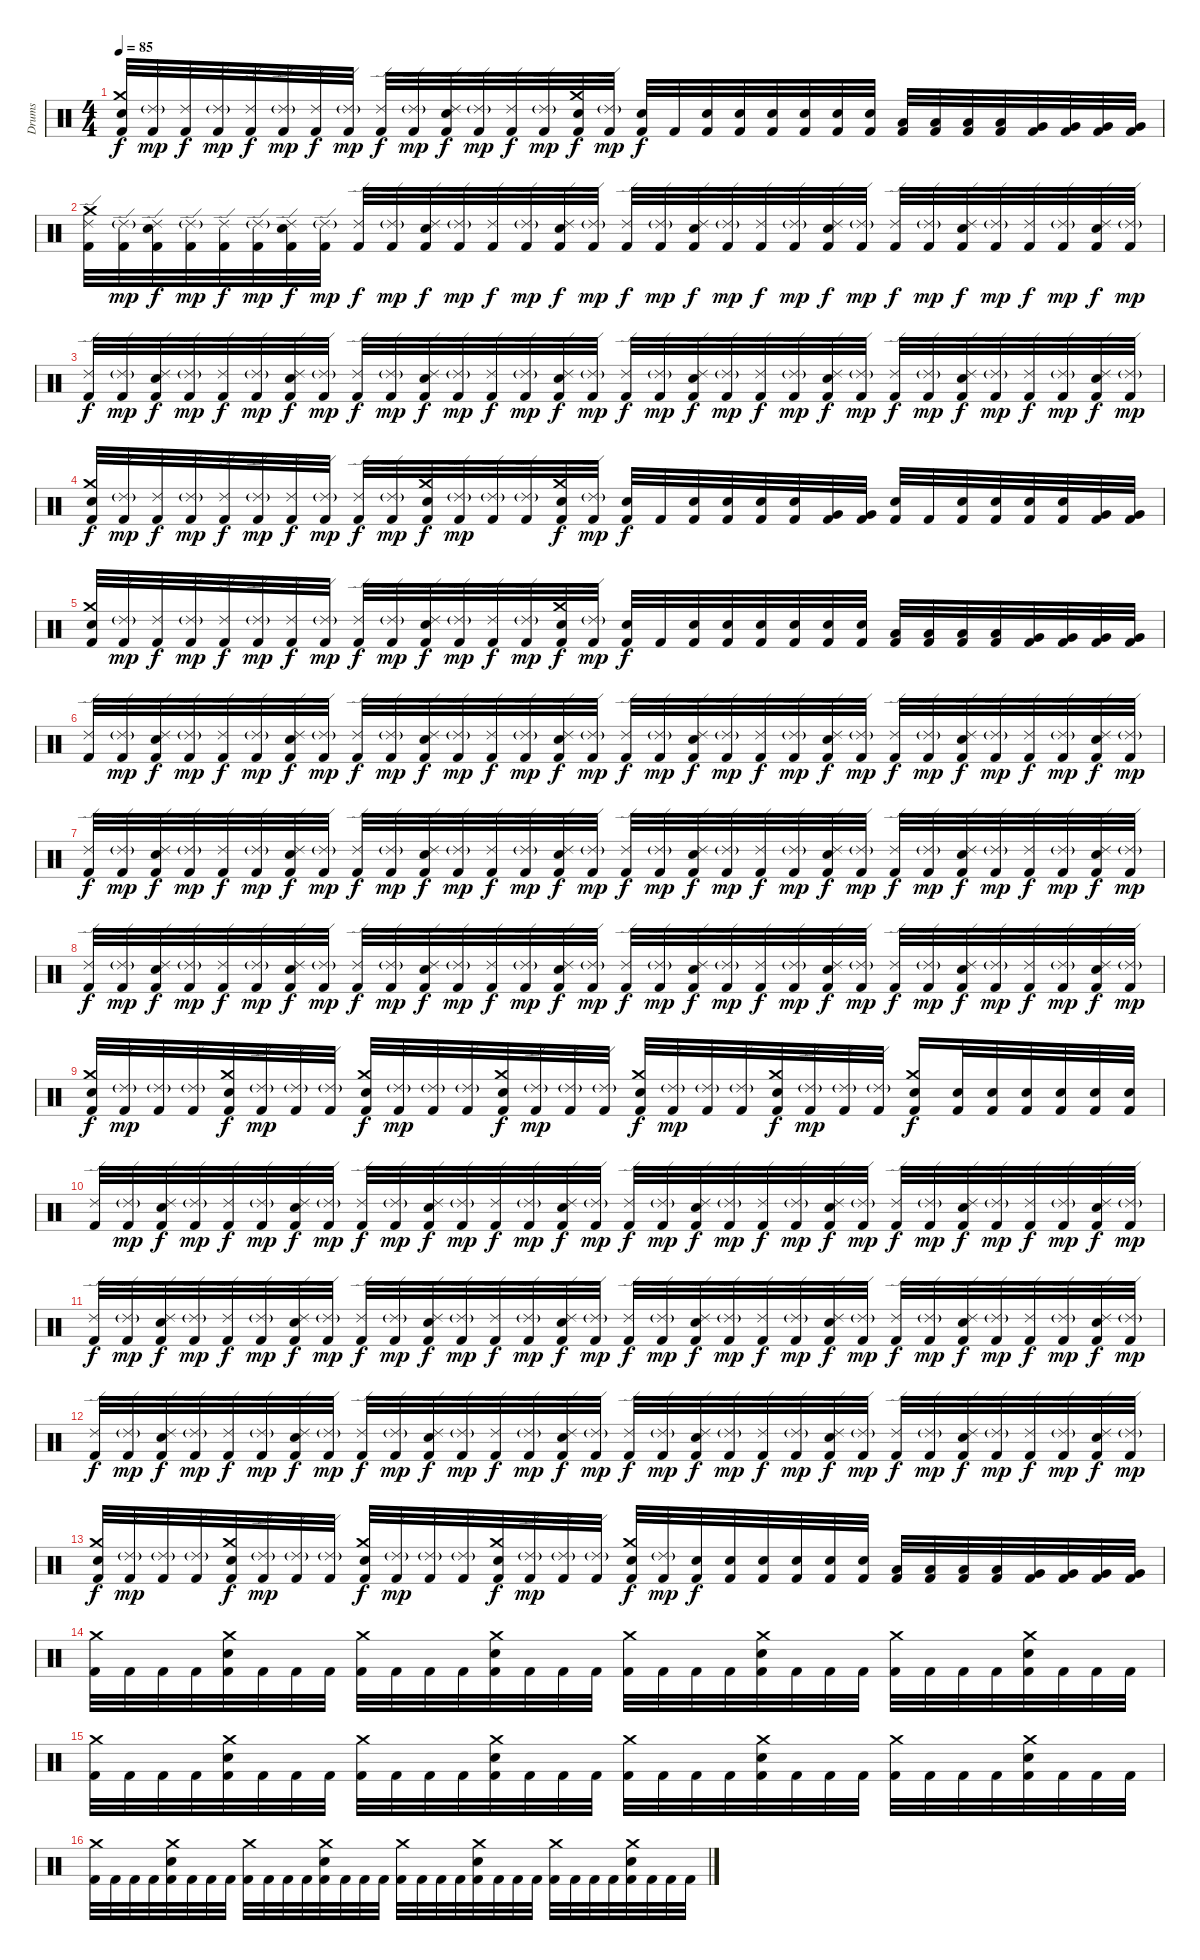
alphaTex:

\track ("Drums" "Drums") {instrument percussion}
\staff {score}
\articulation defaults
\ts (4 4)
\tempo 85
\clef neutral
\ks c
("Snare (hit) 2" "Crash medium (hit)" "Kick (hit) 2").32{dy f} ("Ride (edge) 2"{g} "Kick (hit) 2").32{dy mp} ("Ride (edge) 2" "Kick (hit) 2").32{dy f} ("Ride (edge) 2"{g} "Kick (hit) 2").32{dy mp} ("Ride (edge) 2" "Kick (hit) 2").32{dy f} ("Ride (edge) 2"{g} "Kick (hit) 2").32{dy mp} ("Ride (edge) 2" "Kick (hit) 2").32{dy f} ("Ride (edge) 2"{g} "Kick (hit) 2").32{dy mp} ("Ride (edge) 2" "Kick (hit) 2").32{dy f} ("Ride (edge) 2"{g} "Kick (hit) 2").32{dy mp} ("Snare (hit) 2" "Ride (edge) 2" "Kick (hit) 2").32{dy f} ("Ride (edge) 2"{g} "Kick (hit) 2").32{dy mp} ("Ride (edge) 2" "Kick (hit) 2").32{dy f} ("Ride (edge) 2"{g} "Kick (hit) 2").32{dy mp} ("Snare (hit) 2" "Crash medium (hit)" "Kick (hit) 2").32{dy f} ("Ride (edge) 2"{g} "Kick (hit) 2").32{dy mp} ("Snare (hit) 2" "Kick (hit) 2").32{dy f} "Kick (hit) 2".32 ("Snare (hit) 2" "Kick (hit) 2").32 ("Snare (hit) 2" "Kick (hit) 2").32 ("Snare (hit) 2" "Kick (hit) 2").32 ("Snare (hit) 2" "Kick (hit) 2").32 ("Snare (hit) 2" "Kick (hit) 2").32 ("Snare (hit) 2" "Kick (hit) 2").32 ("Low Tom (hit)" "Kick (hit) 2").32 ("Low Tom (hit)" "Kick (hit) 2").32 ("Low Tom (hit)" "Kick (hit) 2").32 ("Low Tom (hit)" "Kick (hit) 2").32 ("Very Low Tom (hit)" "Kick (hit) 2").32 ("Very Low Tom (hit)" "Kick (hit) 2").32 ("Very Low Tom (hit)" "Kick (hit) 2").32 ("Very Low Tom (hit)" "Kick (hit) 2").32 |
("Crash medium (hit)" "Ride (edge) 2" "Kick (hit) 2").32 ("Ride (edge) 2"{g} "Kick (hit) 2").32{dy mp} ("Snare (hit) 2" "Ride (edge) 2" "Kick (hit) 2").32{dy f} ("Ride (edge) 2"{g} "Kick (hit) 2").32{dy mp} ("Ride (edge) 2" "Kick (hit) 2").32{dy f} ("Ride (edge) 2"{g} "Kick (hit) 2").32{dy mp} ("Snare (hit) 2" "Ride (edge) 2" "Kick (hit) 2").32{dy f} ("Ride (edge) 2"{g} "Kick (hit) 2").32{dy mp} ("Ride (edge) 2" "Kick (hit) 2").32{dy f} ("Ride (edge) 2"{g} "Kick (hit) 2").32{dy mp} ("Snare (hit) 2" "Ride (edge) 2" "Kick (hit) 2").32{dy f} ("Ride (edge) 2"{g} "Kick (hit) 2").32{dy mp} ("Ride (edge) 2" "Kick (hit) 2").32{dy f} ("Ride (edge) 2"{g} "Kick (hit) 2").32{dy mp} ("Snare (hit) 2" "Ride (edge) 2" "Kick (hit) 2").32{dy f} ("Ride (edge) 2"{g} "Kick (hit) 2").32{dy mp} ("Ride (edge) 2" "Kick (hit) 2").32{dy f} ("Ride (edge) 2"{g} "Kick (hit) 2").32{dy mp} ("Snare (hit) 2" "Ride (edge) 2" "Kick (hit) 2").32{dy f} ("Ride (edge) 2"{g} "Kick (hit) 2").32{dy mp} ("Ride (edge) 2" "Kick (hit) 2").32{dy f} ("Ride (edge) 2"{g} "Kick (hit) 2").32{dy mp} ("Snare (hit) 2" "Ride (edge) 2" "Kick (hit) 2").32{dy f} ("Ride (edge) 2"{g} "Kick (hit) 2").32{dy mp} ("Ride (edge) 2" "Kick (hit) 2").32{dy f} ("Ride (edge) 2"{g} "Kick (hit) 2").32{dy mp} ("Snare (hit) 2" "Ride (edge) 2" "Kick (hit) 2").32{dy f} ("Ride (edge) 2"{g} "Kick (hit) 2").32{dy mp} ("Ride (edge) 2" "Kick (hit) 2").32{dy f} ("Ride (edge) 2"{g} "Kick (hit) 2").32{dy mp} ("Snare (hit) 2" "Ride (edge) 2" "Kick (hit) 2").32{dy f} ("Ride (edge) 2"{g} "Kick (hit) 2").32{dy mp} |
("Ride (edge) 2" "Kick (hit) 2").32{dy f} ("Ride (edge) 2"{g} "Kick (hit) 2").32{dy mp} ("Snare (hit) 2" "Ride (edge) 2" "Kick (hit) 2").32{dy f} ("Ride (edge) 2"{g} "Kick (hit) 2").32{dy mp} ("Ride (edge) 2" "Kick (hit) 2").32{dy f} ("Ride (edge) 2"{g} "Kick (hit) 2").32{dy mp} ("Snare (hit) 2" "Ride (edge) 2" "Kick (hit) 2").32{dy f} ("Ride (edge) 2"{g} "Kick (hit) 2").32{dy mp} ("Ride (edge) 2" "Kick (hit) 2").32{dy f} ("Ride (edge) 2"{g} "Kick (hit) 2").32{dy mp} ("Snare (hit) 2" "Ride (edge) 2" "Kick (hit) 2").32{dy f} ("Ride (edge) 2"{g} "Kick (hit) 2").32{dy mp} ("Ride (edge) 2" "Kick (hit) 2").32{dy f} ("Ride (edge) 2"{g} "Kick (hit) 2").32{dy mp} ("Snare (hit) 2" "Ride (edge) 2" "Kick (hit) 2").32{dy f} ("Ride (edge) 2"{g} "Kick (hit) 2").32{dy mp} ("Ride (edge) 2" "Kick (hit) 2").32{dy f} ("Ride (edge) 2"{g} "Kick (hit) 2").32{dy mp} ("Snare (hit) 2" "Ride (edge) 2" "Kick (hit) 2").32{dy f} ("Ride (edge) 2"{g} "Kick (hit) 2").32{dy mp} ("Ride (edge) 2" "Kick (hit) 2").32{dy f} ("Ride (edge) 2"{g} "Kick (hit) 2").32{dy mp} ("Snare (hit) 2" "Ride (edge) 2" "Kick (hit) 2").32{dy f} ("Ride (edge) 2"{g} "Kick (hit) 2").32{dy mp} ("Ride (edge) 2" "Kick (hit) 2").32{dy f} ("Ride (edge) 2"{g} "Kick (hit) 2").32{dy mp} ("Snare (hit) 2" "Ride (edge) 2" "Kick (hit) 2").32{dy f} ("Ride (edge) 2"{g} "Kick (hit) 2").32{dy mp} ("Ride (edge) 2" "Kick (hit) 2").32{dy f} ("Ride (edge) 2"{g} "Kick (hit) 2").32{dy mp} ("Snare (hit) 2" "Ride (edge) 2" "Kick (hit) 2").32{dy f} ("Ride (edge) 2"{g} "Kick (hit) 2").32{dy mp} |
("Snare (hit) 2" "Crash medium (hit)" "Kick (hit) 2").32{dy f} ("Ride (edge) 2"{g} "Kick (hit) 2").32{dy mp} ("Ride (edge) 2" "Kick (hit) 2").32{dy f} ("Ride (edge) 2"{g} "Kick (hit) 2").32{dy mp} ("Ride (edge) 2" "Kick (hit) 2").32{dy f} ("Ride (edge) 2"{g} "Kick (hit) 2").32{dy mp} ("Ride (edge) 2" "Kick (hit) 2").32{dy f} ("Ride (edge) 2"{g} "Kick (hit) 2").32{dy mp} ("Ride (edge) 2" "Kick (hit) 2").32{dy f} ("Ride (edge) 2"{g} "Kick (hit) 2").32{dy mp} ("Snare (hit) 2" "Crash medium (hit)" "Kick (hit) 2").32{dy f} ("Ride (edge) 2"{g} "Kick (hit) 2").32{dy mp} ("Ride (edge) 2"{g} "Kick (hit) 2").32 ("Ride (edge) 2"{g} "Kick (hit) 2").32 ("Snare (hit) 2" "Crash medium (hit)" "Kick (hit) 2").32{dy f} ("Ride (edge) 2"{g} "Kick (hit) 2").32{dy mp} ("Snare (hit) 2" "Kick (hit) 2").32{dy f} "Kick (hit) 2".32 ("Snare (hit) 2" "Kick (hit) 2").32 ("Snare (hit) 2" "Kick (hit) 2").32 ("Snare (hit) 2" "Kick (hit) 2").32 ("Snare (hit) 2" "Kick (hit) 2").32 ("Very Low Tom (hit)" "Kick (hit) 2").32 ("Very Low Tom (hit)" "Kick (hit) 2").32 ("Snare (hit) 2" "Kick (hit) 2").32 "Kick (hit) 2".32 ("Snare (hit) 2" "Kick (hit) 2").32 ("Snare (hit) 2" "Kick (hit) 2").32 ("Snare (hit) 2" "Kick (hit) 2").32 ("Snare (hit) 2" "Kick (hit) 2").32 ("Very Low Tom (hit)" "Kick (hit) 2").32 ("Very Low Tom (hit)" "Kick (hit) 2").32 |
("Snare (hit) 2" "Crash medium (hit)" "Kick (hit) 2").32 ("Ride (edge) 2"{g} "Kick (hit) 2").32{dy mp} ("Ride (edge) 2" "Kick (hit) 2").32{dy f} ("Ride (edge) 2"{g} "Kick (hit) 2").32{dy mp} ("Ride (edge) 2" "Kick (hit) 2").32{dy f} ("Ride (edge) 2"{g} "Kick (hit) 2").32{dy mp} ("Ride (edge) 2" "Kick (hit) 2").32{dy f} ("Ride (edge) 2"{g} "Kick (hit) 2").32{dy mp} ("Ride (edge) 2" "Kick (hit) 2").32{dy f} ("Ride (edge) 2"{g} "Kick (hit) 2").32{dy mp} ("Snare (hit) 2" "Ride (edge) 2" "Kick (hit) 2").32{dy f} ("Ride (edge) 2"{g} "Kick (hit) 2").32{dy mp} ("Ride (edge) 2" "Kick (hit) 2").32{dy f} ("Ride (edge) 2"{g} "Kick (hit) 2").32{dy mp} ("Snare (hit) 2" "Crash medium (hit)" "Kick (hit) 2").32{dy f} ("Ride (edge) 2"{g} "Kick (hit) 2").32{dy mp} ("Snare (hit) 2" "Kick (hit) 2").32{dy f} "Kick (hit) 2".32 ("Snare (hit) 2" "Kick (hit) 2").32 ("Snare (hit) 2" "Kick (hit) 2").32 ("Snare (hit) 2" "Kick (hit) 2").32 ("Snare (hit) 2" "Kick (hit) 2").32 ("Snare (hit) 2" "Kick (hit) 2").32 ("Snare (hit) 2" "Kick (hit) 2").32 ("Low Tom (hit)" "Kick (hit) 2").32 ("Low Tom (hit)" "Kick (hit) 2").32 ("Low Tom (hit)" "Kick (hit) 2").32 ("Low Tom (hit)" "Kick (hit) 2").32 ("Very Low Tom (hit)" "Kick (hit) 2").32 ("Very Low Tom (hit)" "Kick (hit) 2").32 ("Very Low Tom (hit)" "Kick (hit) 2").32 ("Very Low Tom (hit)" "Kick (hit) 2").32 |
("Ride (edge) 2" "Kick (hit) 2").32 ("Ride (edge) 2"{g} "Kick (hit) 2").32{dy mp} ("Snare (hit) 2" "Ride (edge) 2" "Kick (hit) 2").32{dy f} ("Ride (edge) 2"{g} "Kick (hit) 2").32{dy mp} ("Ride (edge) 2" "Kick (hit) 2").32{dy f} ("Ride (edge) 2"{g} "Kick (hit) 2").32{dy mp} ("Snare (hit) 2" "Ride (edge) 2" "Kick (hit) 2").32{dy f} ("Ride (edge) 2"{g} "Kick (hit) 2").32{dy mp} ("Ride (edge) 2" "Kick (hit) 2").32{dy f} ("Ride (edge) 2"{g} "Kick (hit) 2").32{dy mp} ("Snare (hit) 2" "Ride (edge) 2" "Kick (hit) 2").32{dy f} ("Ride (edge) 2"{g} "Kick (hit) 2").32{dy mp} ("Ride (edge) 2" "Kick (hit) 2").32{dy f} ("Ride (edge) 2"{g} "Kick (hit) 2").32{dy mp} ("Snare (hit) 2" "Ride (edge) 2" "Kick (hit) 2").32{dy f} ("Ride (edge) 2"{g} "Kick (hit) 2").32{dy mp} ("Ride (edge) 2" "Kick (hit) 2").32{dy f} ("Ride (edge) 2"{g} "Kick (hit) 2").32{dy mp} ("Snare (hit) 2" "Ride (edge) 2" "Kick (hit) 2").32{dy f} ("Ride (edge) 2"{g} "Kick (hit) 2").32{dy mp} ("Ride (edge) 2" "Kick (hit) 2").32{dy f} ("Ride (edge) 2"{g} "Kick (hit) 2").32{dy mp} ("Snare (hit) 2" "Ride (edge) 2" "Kick (hit) 2").32{dy f} ("Ride (edge) 2"{g} "Kick (hit) 2").32{dy mp} ("Ride (edge) 2" "Kick (hit) 2").32{dy f} ("Ride (edge) 2"{g} "Kick (hit) 2").32{dy mp} ("Snare (hit) 2" "Ride (edge) 2" "Kick (hit) 2").32{dy f} ("Ride (edge) 2"{g} "Kick (hit) 2").32{dy mp} ("Ride (edge) 2" "Kick (hit) 2").32{dy f} ("Ride (edge) 2"{g} "Kick (hit) 2").32{dy mp} ("Snare (hit) 2" "Ride (edge) 2" "Kick (hit) 2").32{dy f} ("Ride (edge) 2"{g} "Kick (hit) 2").32{dy mp} |
("Ride (edge) 2" "Kick (hit) 2").32{dy f} ("Ride (edge) 2"{g} "Kick (hit) 2").32{dy mp} ("Snare (hit) 2" "Ride (edge) 2" "Kick (hit) 2").32{dy f} ("Ride (edge) 2"{g} "Kick (hit) 2").32{dy mp} ("Ride (edge) 2" "Kick (hit) 2").32{dy f} ("Ride (edge) 2"{g} "Kick (hit) 2").32{dy mp} ("Snare (hit) 2" "Ride (edge) 2" "Kick (hit) 2").32{dy f} ("Ride (edge) 2"{g} "Kick (hit) 2").32{dy mp} ("Ride (edge) 2" "Kick (hit) 2").32{dy f} ("Ride (edge) 2"{g} "Kick (hit) 2").32{dy mp} ("Snare (hit) 2" "Ride (edge) 2" "Kick (hit) 2").32{dy f} ("Ride (edge) 2"{g} "Kick (hit) 2").32{dy mp} ("Ride (edge) 2" "Kick (hit) 2").32{dy f} ("Ride (edge) 2"{g} "Kick (hit) 2").32{dy mp} ("Snare (hit) 2" "Ride (edge) 2" "Kick (hit) 2").32{dy f} ("Ride (edge) 2"{g} "Kick (hit) 2").32{dy mp} ("Ride (edge) 2" "Kick (hit) 2").32{dy f} ("Ride (edge) 2"{g} "Kick (hit) 2").32{dy mp} ("Snare (hit) 2" "Ride (edge) 2" "Kick (hit) 2").32{dy f} ("Ride (edge) 2"{g} "Kick (hit) 2").32{dy mp} ("Ride (edge) 2" "Kick (hit) 2").32{dy f} ("Ride (edge) 2"{g} "Kick (hit) 2").32{dy mp} ("Snare (hit) 2" "Ride (edge) 2" "Kick (hit) 2").32{dy f} ("Ride (edge) 2"{g} "Kick (hit) 2").32{dy mp} ("Ride (edge) 2" "Kick (hit) 2").32{dy f} ("Ride (edge) 2"{g} "Kick (hit) 2").32{dy mp} ("Snare (hit) 2" "Ride (edge) 2" "Kick (hit) 2").32{dy f} ("Ride (edge) 2"{g} "Kick (hit) 2").32{dy mp} ("Ride (edge) 2" "Kick (hit) 2").32{dy f} ("Ride (edge) 2"{g} "Kick (hit) 2").32{dy mp} ("Snare (hit) 2" "Ride (edge) 2" "Kick (hit) 2").32{dy f} ("Ride (edge) 2"{g} "Kick (hit) 2").32{dy mp} |
("Ride (edge) 2" "Kick (hit) 2").32{dy f} ("Ride (edge) 2"{g} "Kick (hit) 2").32{dy mp} ("Snare (hit) 2" "Ride (edge) 2" "Kick (hit) 2").32{dy f} ("Ride (edge) 2"{g} "Kick (hit) 2").32{dy mp} ("Ride (edge) 2" "Kick (hit) 2").32{dy f} ("Ride (edge) 2"{g} "Kick (hit) 2").32{dy mp} ("Snare (hit) 2" "Ride (edge) 2" "Kick (hit) 2").32{dy f} ("Ride (edge) 2"{g} "Kick (hit) 2").32{dy mp} ("Ride (edge) 2" "Kick (hit) 2").32{dy f} ("Ride (edge) 2"{g} "Kick (hit) 2").32{dy mp} ("Snare (hit) 2" "Ride (edge) 2" "Kick (hit) 2").32{dy f} ("Ride (edge) 2"{g} "Kick (hit) 2").32{dy mp} ("Ride (edge) 2" "Kick (hit) 2").32{dy f} ("Ride (edge) 2"{g} "Kick (hit) 2").32{dy mp} ("Snare (hit) 2" "Ride (edge) 2" "Kick (hit) 2").32{dy f} ("Ride (edge) 2"{g} "Kick (hit) 2").32{dy mp} ("Ride (edge) 2" "Kick (hit) 2").32{dy f} ("Ride (edge) 2"{g} "Kick (hit) 2").32{dy mp} ("Snare (hit) 2" "Ride (edge) 2" "Kick (hit) 2").32{dy f} ("Ride (edge) 2"{g} "Kick (hit) 2").32{dy mp} ("Ride (edge) 2" "Kick (hit) 2").32{dy f} ("Ride (edge) 2"{g} "Kick (hit) 2").32{dy mp} ("Snare (hit) 2" "Ride (edge) 2" "Kick (hit) 2").32{dy f} ("Ride (edge) 2"{g} "Kick (hit) 2").32{dy mp} ("Ride (edge) 2" "Kick (hit) 2").32{dy f} ("Ride (edge) 2"{g} "Kick (hit) 2").32{dy mp} ("Snare (hit) 2" "Ride (edge) 2" "Kick (hit) 2").32{dy f} ("Ride (edge) 2"{g} "Kick (hit) 2").32{dy mp} ("Ride (edge) 2" "Kick (hit) 2").32{dy f} ("Ride (edge) 2"{g} "Kick (hit) 2").32{dy mp} ("Snare (hit) 2" "Ride (edge) 2" "Kick (hit) 2").32{dy f} ("Ride (edge) 2"{g} "Kick (hit) 2").32{dy mp} |
("Snare (hit) 2" "Crash medium (hit)" "Kick (hit) 2").32{dy f} ("Ride (edge) 2"{g} "Kick (hit) 2").32{dy mp} ("Ride (edge) 2"{g} "Kick (hit) 2").32 ("Ride (edge) 2"{g} "Kick (hit) 2").32 ("Snare (hit) 2" "Crash medium (hit)" "Kick (hit) 2").32{dy f} ("Ride (edge) 2"{g} "Kick (hit) 2").32{dy mp} ("Ride (edge) 2"{g} "Kick (hit) 2").32 ("Ride (edge) 2"{g} "Kick (hit) 2").32 ("Snare (hit) 2" "Crash medium (hit)" "Kick (hit) 2").32{dy f} ("Ride (edge) 2"{g} "Kick (hit) 2").32{dy mp} ("Ride (edge) 2"{g} "Kick (hit) 2").32 ("Ride (edge) 2"{g} "Kick (hit) 2").32 ("Snare (hit) 2" "Crash medium (hit)" "Kick (hit) 2").32{dy f} ("Ride (edge) 2"{g} "Kick (hit) 2").32{dy mp} ("Ride (edge) 2"{g} "Kick (hit) 2").32 ("Ride (edge) 2"{g} "Kick (hit) 2").32 ("Snare (hit) 2" "Crash medium (hit)" "Kick (hit) 2").32{dy f} ("Ride (edge) 2"{g} "Kick (hit) 2").32{dy mp} ("Ride (edge) 2"{g} "Kick (hit) 2").32 ("Ride (edge) 2"{g} "Kick (hit) 2").32 ("Snare (hit) 2" "Crash medium (hit)" "Kick (hit) 2").32{dy f} ("Ride (edge) 2"{g} "Kick (hit) 2").32{dy mp} ("Ride (edge) 2"{g} "Kick (hit) 2").32 ("Ride (edge) 2"{g} "Kick (hit) 2").32 ("Snare (hit) 2" "Crash medium (hit)" "Kick (hit) 2").16{dy f} ("Snare (hit) 2" "Kick (hit) 2").32 ("Snare (hit) 2" "Kick (hit) 2").32 ("Snare (hit) 2" "Kick (hit) 2").32 ("Snare (hit) 2" "Kick (hit) 2").32 ("Snare (hit) 2" "Kick (hit) 2").32 ("Snare (hit) 2" "Kick (hit) 2").32 |
("Ride (edge) 2" "Kick (hit) 2").32 ("Ride (edge) 2"{g} "Kick (hit) 2").32{dy mp} ("Snare (hit) 2" "Ride (edge) 2" "Kick (hit) 2").32{dy f} ("Ride (edge) 2"{g} "Kick (hit) 2").32{dy mp} ("Ride (edge) 2" "Kick (hit) 2").32{dy f} ("Ride (edge) 2"{g} "Kick (hit) 2").32{dy mp} ("Snare (hit) 2" "Ride (edge) 2" "Kick (hit) 2").32{dy f} ("Ride (edge) 2"{g} "Kick (hit) 2").32{dy mp} ("Ride (edge) 2" "Kick (hit) 2").32{dy f} ("Ride (edge) 2"{g} "Kick (hit) 2").32{dy mp} ("Snare (hit) 2" "Ride (edge) 2" "Kick (hit) 2").32{dy f} ("Ride (edge) 2"{g} "Kick (hit) 2").32{dy mp} ("Ride (edge) 2" "Kick (hit) 2").32{dy f} ("Ride (edge) 2"{g} "Kick (hit) 2").32{dy mp} ("Snare (hit) 2" "Ride (edge) 2" "Kick (hit) 2").32{dy f} ("Ride (edge) 2"{g} "Kick (hit) 2").32{dy mp} ("Ride (edge) 2" "Kick (hit) 2").32{dy f} ("Ride (edge) 2"{g} "Kick (hit) 2").32{dy mp} ("Snare (hit) 2" "Ride (edge) 2" "Kick (hit) 2").32{dy f} ("Ride (edge) 2"{g} "Kick (hit) 2").32{dy mp} ("Ride (edge) 2" "Kick (hit) 2").32{dy f} ("Ride (edge) 2"{g} "Kick (hit) 2").32{dy mp} ("Snare (hit) 2" "Ride (edge) 2" "Kick (hit) 2").32{dy f} ("Ride (edge) 2"{g} "Kick (hit) 2").32{dy mp} ("Ride (edge) 2" "Kick (hit) 2").32{dy f} ("Ride (edge) 2"{g} "Kick (hit) 2").32{dy mp} ("Snare (hit) 2" "Ride (edge) 2" "Kick (hit) 2").32{dy f} ("Ride (edge) 2"{g} "Kick (hit) 2").32{dy mp} ("Ride (edge) 2" "Kick (hit) 2").32{dy f} ("Ride (edge) 2"{g} "Kick (hit) 2").32{dy mp} ("Snare (hit) 2" "Ride (edge) 2" "Kick (hit) 2").32{dy f} ("Ride (edge) 2"{g} "Kick (hit) 2").32{dy mp} |
("Ride (edge) 2" "Kick (hit) 2").32{dy f} ("Ride (edge) 2"{g} "Kick (hit) 2").32{dy mp} ("Snare (hit) 2" "Ride (edge) 2" "Kick (hit) 2").32{dy f} ("Ride (edge) 2"{g} "Kick (hit) 2").32{dy mp} ("Ride (edge) 2" "Kick (hit) 2").32{dy f} ("Ride (edge) 2"{g} "Kick (hit) 2").32{dy mp} ("Snare (hit) 2" "Ride (edge) 2" "Kick (hit) 2").32{dy f} ("Ride (edge) 2"{g} "Kick (hit) 2").32{dy mp} ("Ride (edge) 2" "Kick (hit) 2").32{dy f} ("Ride (edge) 2"{g} "Kick (hit) 2").32{dy mp} ("Snare (hit) 2" "Ride (edge) 2" "Kick (hit) 2").32{dy f} ("Ride (edge) 2"{g} "Kick (hit) 2").32{dy mp} ("Ride (edge) 2" "Kick (hit) 2").32{dy f} ("Ride (edge) 2"{g} "Kick (hit) 2").32{dy mp} ("Snare (hit) 2" "Ride (edge) 2" "Kick (hit) 2").32{dy f} ("Ride (edge) 2"{g} "Kick (hit) 2").32{dy mp} ("Ride (edge) 2" "Kick (hit) 2").32{dy f} ("Ride (edge) 2"{g} "Kick (hit) 2").32{dy mp} ("Snare (hit) 2" "Ride (edge) 2" "Kick (hit) 2").32{dy f} ("Ride (edge) 2"{g} "Kick (hit) 2").32{dy mp} ("Ride (edge) 2" "Kick (hit) 2").32{dy f} ("Ride (edge) 2"{g} "Kick (hit) 2").32{dy mp} ("Snare (hit) 2" "Ride (edge) 2" "Kick (hit) 2").32{dy f} ("Ride (edge) 2"{g} "Kick (hit) 2").32{dy mp} ("Ride (edge) 2" "Kick (hit) 2").32{dy f} ("Ride (edge) 2"{g} "Kick (hit) 2").32{dy mp} ("Snare (hit) 2" "Ride (edge) 2" "Kick (hit) 2").32{dy f} ("Ride (edge) 2"{g} "Kick (hit) 2").32{dy mp} ("Ride (edge) 2" "Kick (hit) 2").32{dy f} ("Ride (edge) 2"{g} "Kick (hit) 2").32{dy mp} ("Snare (hit) 2" "Ride (edge) 2" "Kick (hit) 2").32{dy f} ("Ride (edge) 2"{g} "Kick (hit) 2").32{dy mp} |
("Ride (edge) 2" "Kick (hit) 2").32{dy f} ("Ride (edge) 2"{g} "Kick (hit) 2").32{dy mp} ("Snare (hit) 2" "Ride (edge) 2" "Kick (hit) 2").32{dy f} ("Ride (edge) 2"{g} "Kick (hit) 2").32{dy mp} ("Ride (edge) 2" "Kick (hit) 2").32{dy f} ("Ride (edge) 2"{g} "Kick (hit) 2").32{dy mp} ("Snare (hit) 2" "Ride (edge) 2" "Kick (hit) 2").32{dy f} ("Ride (edge) 2"{g} "Kick (hit) 2").32{dy mp} ("Ride (edge) 2" "Kick (hit) 2").32{dy f} ("Ride (edge) 2"{g} "Kick (hit) 2").32{dy mp} ("Snare (hit) 2" "Ride (edge) 2" "Kick (hit) 2").32{dy f} ("Ride (edge) 2"{g} "Kick (hit) 2").32{dy mp} ("Ride (edge) 2" "Kick (hit) 2").32{dy f} ("Ride (edge) 2"{g} "Kick (hit) 2").32{dy mp} ("Snare (hit) 2" "Ride (edge) 2" "Kick (hit) 2").32{dy f} ("Ride (edge) 2"{g} "Kick (hit) 2").32{dy mp} ("Ride (edge) 2" "Kick (hit) 2").32{dy f} ("Ride (edge) 2"{g} "Kick (hit) 2").32{dy mp} ("Snare (hit) 2" "Ride (edge) 2" "Kick (hit) 2").32{dy f} ("Ride (edge) 2"{g} "Kick (hit) 2").32{dy mp} ("Ride (edge) 2" "Kick (hit) 2").32{dy f} ("Ride (edge) 2"{g} "Kick (hit) 2").32{dy mp} ("Snare (hit) 2" "Ride (edge) 2" "Kick (hit) 2").32{dy f} ("Ride (edge) 2"{g} "Kick (hit) 2").32{dy mp} ("Ride (edge) 2" "Kick (hit) 2").32{dy f} ("Ride (edge) 2"{g} "Kick (hit) 2").32{dy mp} ("Snare (hit) 2" "Ride (edge) 2" "Kick (hit) 2").32{dy f} ("Ride (edge) 2"{g} "Kick (hit) 2").32{dy mp} ("Ride (edge) 2" "Kick (hit) 2").32{dy f} ("Ride (edge) 2"{g} "Kick (hit) 2").32{dy mp} ("Snare (hit) 2" "Ride (edge) 2" "Kick (hit) 2").32{dy f} ("Ride (edge) 2"{g} "Kick (hit) 2").32{dy mp} |
("Snare (hit) 2" "Crash medium (hit)" "Kick (hit) 2").32{dy f} ("Ride (edge) 2"{g} "Kick (hit) 2").32{dy mp} ("Ride (edge) 2"{g} "Kick (hit) 2").32 ("Ride (edge) 2"{g} "Kick (hit) 2").32 ("Snare (hit) 2" "Crash medium (hit)" "Kick (hit) 2").32{dy f} ("Ride (edge) 2"{g} "Kick (hit) 2").32{dy mp} ("Ride (edge) 2"{g} "Kick (hit) 2").32 ("Ride (edge) 2"{g} "Kick (hit) 2").32 ("Snare (hit) 2" "Crash medium (hit)" "Kick (hit) 2").32{dy f} ("Ride (edge) 2"{g} "Kick (hit) 2").32{dy mp} ("Ride (edge) 2"{g} "Kick (hit) 2").32 ("Ride (edge) 2"{g} "Kick (hit) 2").32 ("Snare (hit) 2" "Crash medium (hit)" "Kick (hit) 2").32{dy f} ("Ride (edge) 2"{g} "Kick (hit) 2").32{dy mp} ("Ride (edge) 2"{g} "Kick (hit) 2").32 ("Ride (edge) 2"{g} "Kick (hit) 2").32 ("Snare (hit) 2" "Crash medium (hit)" "Kick (hit) 2").32{dy f} ("Ride (edge) 2"{g} "Kick (hit) 2").32{dy mp} ("Snare (hit) 2" "Kick (hit) 2").32{dy f} ("Snare (hit) 2" "Kick (hit) 2").32 ("Snare (hit) 2" "Kick (hit) 2").32 ("Snare (hit) 2" "Kick (hit) 2").32 ("Snare (hit) 2" "Kick (hit) 2").32 ("Snare (hit) 2" "Kick (hit) 2").32 ("Low Tom (hit)" "Kick (hit) 2").32 ("Low Tom (hit)" "Kick (hit) 2").32 ("Low Tom (hit)" "Kick (hit) 2").32 ("Low Tom (hit)" "Kick (hit) 2").32 ("Very Low Tom (hit)" "Kick (hit) 2").32 ("Very Low Tom (hit)" "Kick (hit) 2").32 ("Very Low Tom (hit)" "Kick (hit) 2").32 ("Very Low Tom (hit)" "Kick (hit) 2").32 |
("Crash medium (hit)" "Kick (hit) 2").32 "Kick (hit) 2".32 "Kick (hit) 2".32 "Kick (hit) 2".32 ("Crash medium (hit)" "Snare (hit) 2" "Kick (hit) 2").32 "Kick (hit) 2".32 "Kick (hit) 2".32 "Kick (hit) 2".32 ("Crash medium (hit)" "Kick (hit) 2").32 "Kick (hit) 2".32 "Kick (hit) 2".32 "Kick (hit) 2".32 ("Crash medium (hit)" "Snare (hit) 2" "Kick (hit) 2").32 "Kick (hit) 2".32 "Kick (hit) 2".32 "Kick (hit) 2".32 ("Crash medium (hit)" "Kick (hit) 2").32 "Kick (hit) 2".32 "Kick (hit) 2".32 "Kick (hit) 2".32 ("Crash medium (hit)" "Snare (hit) 2" "Kick (hit) 2").32 "Kick (hit) 2".32 "Kick (hit) 2".32 "Kick (hit) 2".32 ("Crash medium (hit)" "Kick (hit) 2").32 "Kick (hit) 2".32 "Kick (hit) 2".32 "Kick (hit) 2".32 ("Crash medium (hit)" "Snare (hit) 2" "Kick (hit) 2").32 "Kick (hit) 2".32 "Kick (hit) 2".32 "Kick (hit) 2".32 |
("Crash medium (hit)" "Kick (hit) 2").32 "Kick (hit) 2".32 "Kick (hit) 2".32 "Kick (hit) 2".32 ("Crash medium (hit)" "Snare (hit) 2" "Kick (hit) 2").32 "Kick (hit) 2".32 "Kick (hit) 2".32 "Kick (hit) 2".32 ("Crash medium (hit)" "Kick (hit) 2").32 "Kick (hit) 2".32 "Kick (hit) 2".32 "Kick (hit) 2".32 ("Crash medium (hit)" "Snare (hit) 2" "Kick (hit) 2").32 "Kick (hit) 2".32 "Kick (hit) 2".32 "Kick (hit) 2".32 ("Crash medium (hit)" "Kick (hit) 2").32 "Kick (hit) 2".32 "Kick (hit) 2".32 "Kick (hit) 2".32 ("Crash medium (hit)" "Snare (hit) 2" "Kick (hit) 2").32 "Kick (hit) 2".32 "Kick (hit) 2".32 "Kick (hit) 2".32 ("Crash medium (hit)" "Kick (hit) 2").32 "Kick (hit) 2".32 "Kick (hit) 2".32 "Kick (hit) 2".32 ("Crash medium (hit)" "Snare (hit) 2" "Kick (hit) 2").32 "Kick (hit) 2".32 "Kick (hit) 2".32 "Kick (hit) 2".32 |
("Crash medium (hit)" "Kick (hit) 2").32 "Kick (hit) 2".32 "Kick (hit) 2".32 "Kick (hit) 2".32 ("Crash medium (hit)" "Snare (hit) 2" "Kick (hit) 2").32 "Kick (hit) 2".32 "Kick (hit) 2".32 "Kick (hit) 2".32 ("Crash medium (hit)" "Kick (hit) 2").32 "Kick (hit) 2".32 "Kick (hit) 2".32 "Kick (hit) 2".32 ("Crash medium (hit)" "Snare (hit) 2" "Kick (hit) 2").32 "Kick (hit) 2".32 "Kick (hit) 2".32 "Kick (hit) 2".32 ("Crash medium (hit)" "Kick (hit) 2").32 "Kick (hit) 2".32 "Kick (hit) 2".32 "Kick (hit) 2".32 ("Crash medium (hit)" "Snare (hit) 2" "Kick (hit) 2").32 "Kick (hit) 2".32 "Kick (hit) 2".32 "Kick (hit) 2".32 ("Crash medium (hit)" "Kick (hit) 2").32 "Kick (hit) 2".32 "Kick (hit) 2".32 "Kick (hit) 2".32 ("Crash medium (hit)" "Snare (hit) 2" "Kick (hit) 2").32 "Kick (hit) 2".32 "Kick (hit) 2".32 "Kick (hit) 2".32
